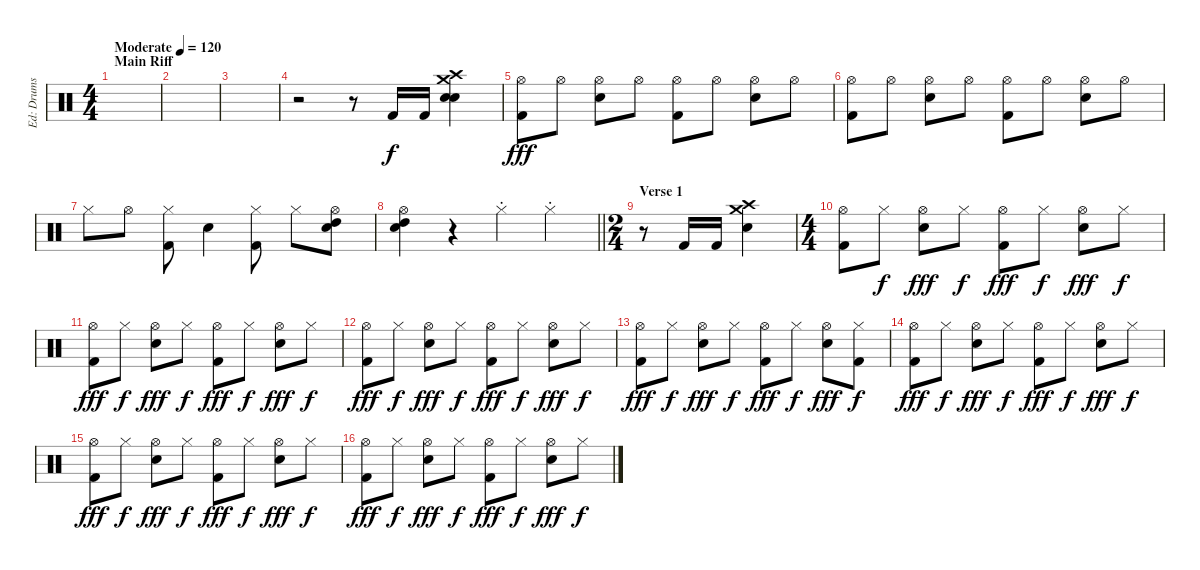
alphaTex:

\track ("Ed: Drums" "Ed: Drums") {instrument percussion}
\staff {score}
\articulation defaults
\ts (4 4)
\section ("" "Main Riff")
\tempo (120 "Moderate")
\clef neutral
\ks c
|
|
|
r.2 r.8 "Kick (hit) 2".16 "Kick (hit) 2".16 ("Crash high (hit)" "Crash medium (hit)" "Electric Snare (hit)" "Electric Snare (hit)").4{dy f} |
("Hi-Hat (open)" "Kick (hit) 2").8{dy fff} "Hi-Hat (open)".8 ("Hi-Hat (open)" "Electric Snare (hit)").8 "Hi-Hat (open)".8 ("Hi-Hat (open)" "Kick (hit) 2").8 "Hi-Hat (open)".8 ("Hi-Hat (open)" "Electric Snare (hit)").8 "Hi-Hat (open)".8 |
("Hi-Hat (open)" "Kick (hit) 2").8 "Hi-Hat (open)".8 ("Hi-Hat (open)" "Electric Snare (hit)").8 "Hi-Hat (open)".8 ("Hi-Hat (open)" "Kick (hit) 2").8 "Hi-Hat (open)".8 ("Hi-Hat (open)" "Electric Snare (hit)").8 "Hi-Hat (open)".8 |
"Hi-Hat (closed)".8 "Hi-Hat (open)".8 ("Hi-Hat (closed)" "Kick (hit) 2").8 "Electric Snare (hit)".4 ("Hi-Hat (closed)" "Kick (hit) 2").8 "Hi-Hat (closed)".8 ("High Tom (hit)" "Hi-Hat (open)" "Snare (hit) 2").8 |
\barLineRight lightlight
("High Tom (hit)" "Hi-Hat (open)" "Snare (hit) 2").4 r.4 "Hi-Hat (closed)"{st}.4 "Hi-Hat (closed)"{st}.4 |
\ts (2 4)
\section ("" "Verse 1")
r.8 "Kick (hit) 2".16 "Kick (hit) 2".16 ("Crash medium (hit)" "Crash high (hit)" "Electric Snare (hit)").4 |
\ts (4 4)
("Hi-Hat (open)" "Kick (hit) 2").8 "Hi-Hat (closed)".8{dy f} ("Hi-Hat (open)" "Electric Snare (hit)").8{dy fff} "Hi-Hat (closed)".8{dy f} ("Hi-Hat (open)" "Kick (hit) 2").8{dy fff} "Hi-Hat (closed)".8{dy f} ("Hi-Hat (open)" "Electric Snare (hit)").8{dy fff} "Hi-Hat (closed)".8{dy f} |
("Hi-Hat (open)" "Kick (hit) 2").8{dy fff} "Hi-Hat (closed)".8{dy f} ("Hi-Hat (open)" "Electric Snare (hit)").8{dy fff} "Hi-Hat (closed)".8{dy f} ("Hi-Hat (open)" "Kick (hit) 2").8{dy fff} "Hi-Hat (closed)".8{dy f} ("Hi-Hat (open)" "Electric Snare (hit)").8{dy fff} "Hi-Hat (closed)".8{dy f} |
("Hi-Hat (open)" "Kick (hit) 2").8{dy fff} "Hi-Hat (closed)".8{dy f} ("Hi-Hat (open)" "Electric Snare (hit)").8{dy fff} "Hi-Hat (closed)".8{dy f} ("Hi-Hat (open)" "Kick (hit) 2").8{dy fff} "Hi-Hat (closed)".8{dy f} ("Hi-Hat (open)" "Electric Snare (hit)").8{dy fff} "Hi-Hat (closed)".8{dy f} |
("Hi-Hat (open)" "Kick (hit) 2").8{dy fff} "Hi-Hat (closed)".8{dy f} ("Hi-Hat (open)" "Electric Snare (hit)").8{dy fff} "Hi-Hat (closed)".8{dy f} ("Hi-Hat (open)" "Kick (hit) 2").8{dy fff} "Hi-Hat (closed)".8{dy f} ("Hi-Hat (open)" "Electric Snare (hit)").8{dy fff} ("Hi-Hat (closed)" "Kick (hit) 2").8{dy f} |
("Hi-Hat (open)" "Kick (hit) 2").8{dy fff} "Hi-Hat (closed)".8{dy f} ("Hi-Hat (open)" "Electric Snare (hit)").8{dy fff} "Hi-Hat (closed)".8{dy f} ("Hi-Hat (open)" "Kick (hit) 2").8{dy fff} "Hi-Hat (closed)".8{dy f} ("Hi-Hat (open)" "Electric Snare (hit)").8{dy fff} "Hi-Hat (closed)".8{dy f} |
("Hi-Hat (open)" "Kick (hit) 2").8{dy fff} "Hi-Hat (closed)".8{dy f} ("Hi-Hat (open)" "Electric Snare (hit)").8{dy fff} "Hi-Hat (closed)".8{dy f} ("Hi-Hat (open)" "Kick (hit) 2").8{dy fff} "Hi-Hat (closed)".8{dy f} ("Hi-Hat (open)" "Electric Snare (hit)").8{dy fff} "Hi-Hat (closed)".8{dy f} |
("Hi-Hat (open)" "Kick (hit) 2").8{dy fff} "Hi-Hat (closed)".8{dy f} ("Hi-Hat (open)" "Electric Snare (hit)").8{dy fff} "Hi-Hat (closed)".8{dy f} ("Hi-Hat (open)" "Kick (hit) 2").8{dy fff} "Hi-Hat (closed)".8{dy f} ("Hi-Hat (open)" "Electric Snare (hit)").8{dy fff} "Hi-Hat (closed)".8{dy f}
